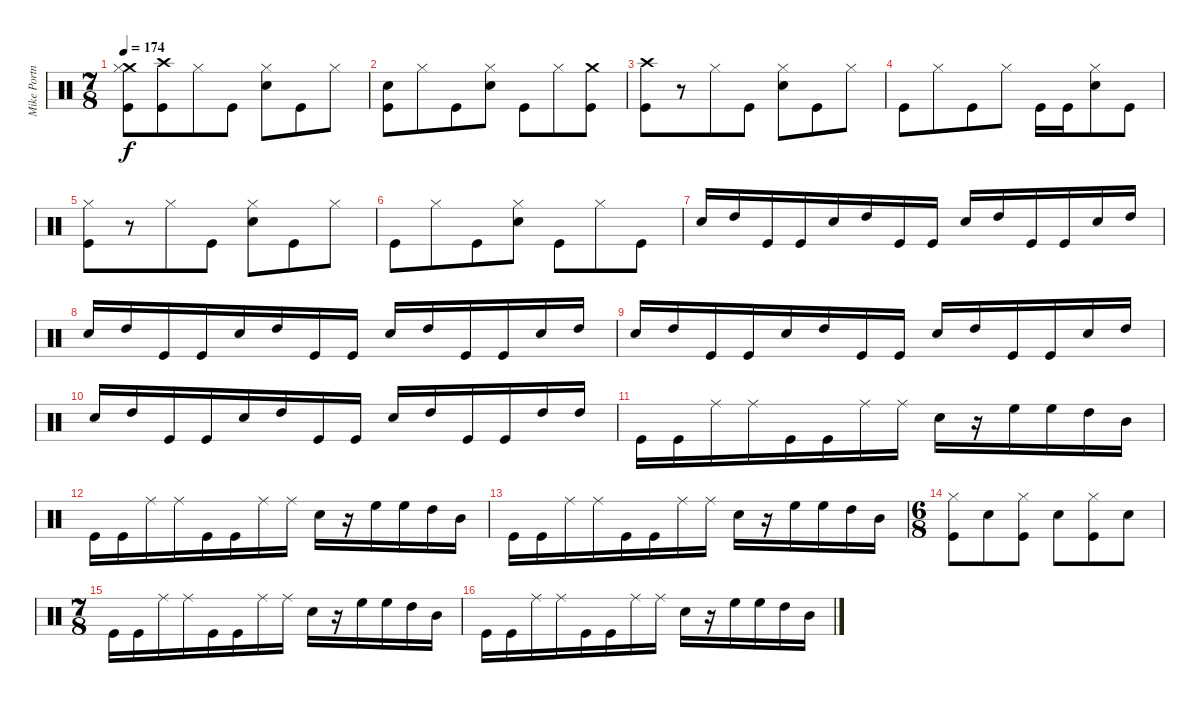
\track ("Mike Portnoy" "Mike Portn") {instrument percussion}
\staff {score}
\articulation defaults
\ts (7 8)
\tempo 174
\clef neutral
\ks c
("Crash medium (hit)" "Hi-Hat (closed)" "Kick (hit)").8{dy f} ("Crash high (hit)" "Kick (hit)").8 "Hi-Hat (closed)".8 "Kick (hit)".8 ("Snare (hit) 2" "Hi-Hat (closed)").8 "Kick (hit)".8 "Hi-Hat (closed)".8 |
("Snare (hit) 2" "Kick (hit)").8 "Hi-Hat (closed)".8 "Kick (hit)".8 ("Snare (hit) 2" "Hi-Hat (closed)").8 "Kick (hit)".8 "Hi-Hat (closed)".8 ("Crash medium (hit)" "Kick (hit)").8 |
("Crash high (hit)" "Kick (hit)").8 r.8 "Hi-Hat (closed)".8 "Kick (hit)".8 ("Snare (hit) 2" "Hi-Hat (closed)").8 "Kick (hit)".8 "Hi-Hat (closed)".8 |
"Kick (hit)".8 "Hi-Hat (closed)".8 "Kick (hit)".8 "Hi-Hat (closed)".8 "Kick (hit)".16 "Kick (hit)".16 ("Snare (hit) 2" "Hi-Hat (closed)").8 "Kick (hit)".8 |
("Hi-Hat (closed)" "Kick (hit)").8 r.8 "Hi-Hat (closed)".8 "Kick (hit)".8 ("Snare (hit) 2" "Hi-Hat (closed)").8 "Kick (hit)".8 "Hi-Hat (closed)".8 |
"Kick (hit)".8 "Hi-Hat (closed)".8 "Kick (hit)".8 ("Snare (hit) 2" "Hi-Hat (closed)").8 "Kick (hit)".8 "Hi-Hat (closed)".8 "Kick (hit)".8 |
"Snare (hit) 2".16 "High Tom (hit)".16 "Kick (hit)".16 "Kick (hit)".16 "Snare (hit) 2".16 "High Tom (hit)".16 "Kick (hit)".16 "Kick (hit)".16 "Snare (hit) 2".16 "High Tom (hit)".16 "Kick (hit)".16 "Kick (hit)".16 "Snare (hit) 2".16 "High Tom (hit)".16 |
"Snare (hit) 2".16 "High Tom (hit)".16 "Kick (hit)".16 "Kick (hit)".16 "Snare (hit) 2".16 "High Tom (hit)".16 "Kick (hit)".16 "Kick (hit)".16 "Snare (hit) 2".16 "High Tom (hit)".16 "Kick (hit)".16 "Kick (hit)".16 "Snare (hit) 2".16 "High Tom (hit)".16 |
"Snare (hit) 2".16 "High Tom (hit)".16 "Kick (hit)".16 "Kick (hit)".16 "Snare (hit) 2".16 "High Tom (hit)".16 "Kick (hit)".16 "Kick (hit)".16 "Snare (hit) 2".16 "High Tom (hit)".16 "Kick (hit)".16 "Kick (hit)".16 "Snare (hit) 2".16 "High Tom (hit)".16 |
"Snare (hit) 2".16 "High Tom (hit)".16 "Kick (hit)".16 "Kick (hit)".16 "Snare (hit) 2".16 "High Tom (hit)".16 "Kick (hit)".16 "Kick (hit)".16 "Snare (hit) 2".16 "High Tom (hit)".16 "Kick (hit)".16 "Kick (hit)".16 "High Tom (hit)".16 "High Tom (hit)".16 |
"Kick (hit)".16 "Kick (hit)".16 "Ride (middle)".16 "Ride (middle)".16 "Kick (hit)".16 "Kick (hit)".16 "Ride (middle)".16 "Ride (middle)".16 "Snare (hit) 2".16 r.16 "High Floor Tom (hit)".16 "High Floor Tom (hit)".16 "High Tom (hit)".16 "Mid Tom (hit)".16 |
"Kick (hit)".16 "Kick (hit)".16 "Ride (middle)".16 "Ride (middle)".16 "Kick (hit)".16 "Kick (hit)".16 "Ride (middle)".16 "Ride (middle)".16 "Snare (hit) 2".16 r.16 "High Floor Tom (hit)".16 "High Floor Tom (hit)".16 "High Tom (hit)".16 "Mid Tom (hit)".16 |
"Kick (hit)".16 "Kick (hit)".16 "Ride (middle)".16 "Ride (middle)".16 "Kick (hit)".16 "Kick (hit)".16 "Ride (middle)".16 "Ride (middle)".16 "Snare (hit) 2".16 r.16 "High Floor Tom (hit)".16 "High Floor Tom (hit)".16 "High Tom (hit)".16 "Mid Tom (hit)".16 |
\ts (6 8)
("Hi-Hat (closed)" "Kick (hit)").8 "Snare (hit) 2".8 ("Hi-Hat (closed)" "Kick (hit)").8 "Snare (hit) 2".8 ("Hi-Hat (closed)" "Kick (hit)").8 "Snare (hit) 2".8 |
\ts (7 8)
"Kick (hit)".16 "Kick (hit)".16 "Ride (middle)".16 "Ride (middle)".16 "Kick (hit)".16 "Kick (hit)".16 "Ride (middle)".16 "Ride (middle)".16 "Snare (hit) 2".16 r.16 "High Floor Tom (hit)".16 "High Floor Tom (hit)".16 "High Tom (hit)".16 "Mid Tom (hit)".16 |
"Kick (hit)".16 "Kick (hit)".16 "Ride (middle)".16 "Ride (middle)".16 "Kick (hit)".16 "Kick (hit)".16 "Ride (middle)".16 "Ride (middle)".16 "Snare (hit) 2".16 r.16 "High Floor Tom (hit)".16 "High Floor Tom (hit)".16 "High Tom (hit)".16 "Mid Tom (hit)".16
